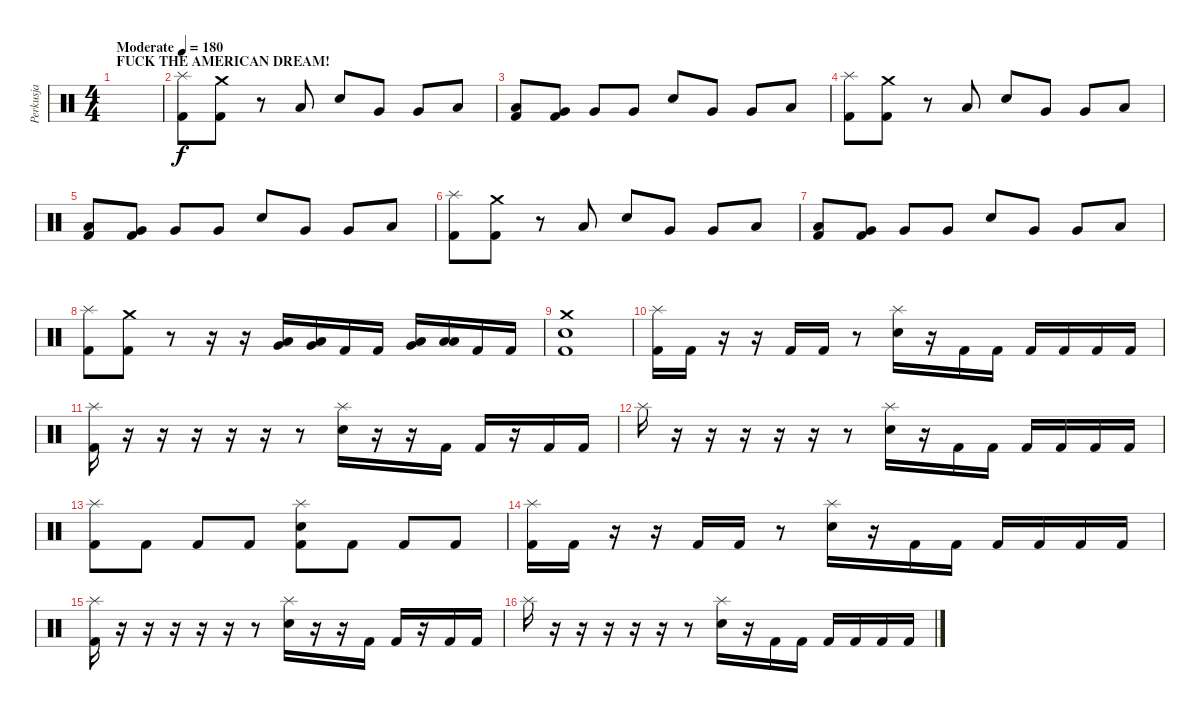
\track ("Perkusja" "Perkusja") {instrument percussion}
\staff {score}
\articulation defaults
\ts (4 4)
\section ("" "FUCK THE AMERICAN DREAM!")
\tempo (180 "Moderate")
\clef neutral
\ks c
|
("Splash (hit)" "Kick (hit) 2").8 ("Crash medium (hit)" "Kick (hit) 2").8 r.8 "Low Tom (hit)".8 "Electric Snare (hit)".8 "Very Low Tom (hit)".8 "Very Low Tom (hit)".8 "Low Floor Tom (hit)".8 |
("Low Tom (hit)" "Kick (hit) 2").8 ("Very Low Tom (hit)" "Kick (hit) 2").8 "Very Low Tom (hit)".8 "Very Low Tom (hit)".8 "Electric Snare (hit)".8 "Very Low Tom (hit)".8 "Very Low Tom (hit)".8 "Low Floor Tom (hit)".8 |
("Splash (hit)" "Kick (hit) 2").8 ("Crash medium (hit)" "Kick (hit) 2").8 r.8 "Low Tom (hit)".8 "Electric Snare (hit)".8 "Very Low Tom (hit)".8 "Very Low Tom (hit)".8 "Low Floor Tom (hit)".8 |
("Low Tom (hit)" "Kick (hit) 2").8 ("Very Low Tom (hit)" "Kick (hit) 2").8 "Very Low Tom (hit)".8 "Very Low Tom (hit)".8 "Electric Snare (hit)".8 "Very Low Tom (hit)".8 "Very Low Tom (hit)".8 "Low Floor Tom (hit)".8 |
("Splash (hit)" "Kick (hit) 2").8 ("Crash medium (hit)" "Kick (hit) 2").8 r.8 "Low Tom (hit)".8 "Electric Snare (hit)".8 "Very Low Tom (hit)".8 "Very Low Tom (hit)".8 "Low Floor Tom (hit)".8 |
("Low Tom (hit)" "Kick (hit) 2").8 ("Very Low Tom (hit)" "Kick (hit) 2").8 "Very Low Tom (hit)".8 "Very Low Tom (hit)".8 "Electric Snare (hit)".8 "Very Low Tom (hit)".8 "Very Low Tom (hit)".8 "Low Floor Tom (hit)".8 |
("Splash (hit)" "Kick (hit) 2").8 ("Crash medium (hit)" "Kick (hit) 2").8 r.8 r.16 r.16 ("Very Low Tom (hit)" "Low Floor Tom (hit)").16 ("Very Low Tom (hit)" "Low Floor Tom (hit)").16 "Kick (hit) 2".16 "Kick (hit) 2".16 ("Very Low Tom (hit)" "Low Floor Tom (hit)").16 ("Low Tom (hit)" "Low Floor Tom (hit)").16 "Kick (hit) 2".16 "Kick (hit) 2".16 |
("Crash medium (hit)" "Electric Snare (hit)" "Kick (hit) 2").1 |
("Splash (hit)" "Kick (hit) 2").16 "Kick (hit) 2".16 r.16 r.16 "Kick (hit) 2".16 "Kick (hit) 2".16 r.8 ("Splash (hit)" "Electric Snare (hit)").16 r.16 "Kick (hit) 2".16 "Kick (hit) 2".16 "Kick (hit) 2".16 "Kick (hit) 2".16 "Kick (hit) 2".16 "Kick (hit) 2".16 |
("Splash (hit)" "Kick (hit) 2").16 r.16 r.16 r.16 r.16 r.16 r.8 ("Splash (hit)" "Electric Snare (hit)").16 r.16 r.16 "Kick (hit) 2".16 "Kick (hit) 2".16 r.16 "Kick (hit) 2".16 "Kick (hit) 2".16 |
"Splash (hit)".16 r.16 r.16 r.16 r.16 r.16 r.8 ("Splash (hit)" "Electric Snare (hit)").16 r.16 "Kick (hit) 2".16 "Kick (hit) 2".16 "Kick (hit) 2".16 "Kick (hit) 2".16 "Kick (hit) 2".16 "Kick (hit) 2".16 |
("Splash (hit)" "Kick (hit) 2").8 "Kick (hit) 2".8 "Kick (hit) 2".8 "Kick (hit) 2".8 ("Splash (hit)" "Electric Snare (hit)" "Kick (hit) 2").8 "Kick (hit) 2".8 "Kick (hit) 2".8 "Kick (hit) 2".8 |
("Splash (hit)" "Kick (hit) 2").16 "Kick (hit) 2".16 r.16 r.16 "Kick (hit) 2".16 "Kick (hit) 2".16 r.8 ("Splash (hit)" "Electric Snare (hit)").16 r.16 "Kick (hit) 2".16 "Kick (hit) 2".16 "Kick (hit) 2".16 "Kick (hit) 2".16 "Kick (hit) 2".16 "Kick (hit) 2".16 |
("Splash (hit)" "Kick (hit) 2").16 r.16 r.16 r.16 r.16 r.16 r.8 ("Splash (hit)" "Electric Snare (hit)").16 r.16 r.16 "Kick (hit) 2".16 "Kick (hit) 2".16 r.16 "Kick (hit) 2".16 "Kick (hit) 2".16 |
"Splash (hit)".16 r.16 r.16 r.16 r.16 r.16 r.8 ("Splash (hit)" "Electric Snare (hit)").16 r.16 "Kick (hit) 2".16 "Kick (hit) 2".16 "Kick (hit) 2".16 "Kick (hit) 2".16 "Kick (hit) 2".16 "Kick (hit) 2".16
